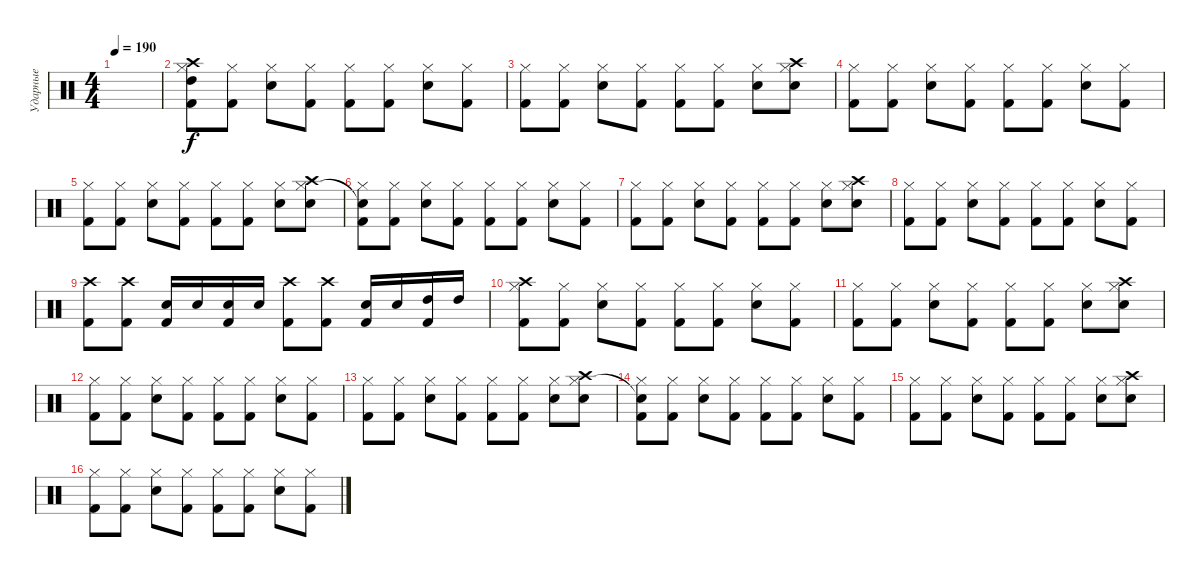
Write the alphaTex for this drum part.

\track ("Ударные" "Ударные") {instrument percussion}
\staff {score}
\articulation defaults
\ts (4 4)
\tempo 190
\clef neutral
\ks c
|
("High Tom (hit)" "Hi-Hat (closed)" "Crash high (hit)" "Kick (hit) 2").8 ("Hi-Hat (closed)" "Kick (hit) 2").8 ("Hi-Hat (closed)" "Electric Snare (hit)").8 ("Hi-Hat (closed)" "Kick (hit) 2").8 ("Hi-Hat (closed)" "Kick (hit) 2").8 ("Hi-Hat (closed)" "Kick (hit) 2").8 ("Hi-Hat (closed)" "Electric Snare (hit)").8 ("Hi-Hat (closed)" "Kick (hit) 2").8 |
("Hi-Hat (closed)" "Kick (hit) 2").8 ("Hi-Hat (closed)" "Kick (hit) 2").8 ("Hi-Hat (closed)" "Electric Snare (hit)").8 ("Hi-Hat (closed)" "Kick (hit) 2").8 ("Hi-Hat (closed)" "Kick (hit) 2").8 ("Hi-Hat (closed)" "Kick (hit) 2").8 ("Hi-Hat (closed)" "Electric Snare (hit)").8 ("Hi-Hat (closed)" "Crash high (hit)" "Electric Snare (hit)").8 |
("Hi-Hat (closed)" "Kick (hit) 2").8 ("Hi-Hat (closed)" "Kick (hit) 2").8 ("Hi-Hat (closed)" "Electric Snare (hit)").8 ("Hi-Hat (closed)" "Kick (hit) 2").8 ("Hi-Hat (closed)" "Kick (hit) 2").8 ("Hi-Hat (closed)" "Kick (hit) 2").8 ("Hi-Hat (closed)" "Electric Snare (hit)").8 ("Hi-Hat (closed)" "Kick (hit) 2").8 |
("Hi-Hat (closed)" "Kick (hit) 2").8 ("Hi-Hat (closed)" "Kick (hit) 2").8 ("Hi-Hat (closed)" "Electric Snare (hit)").8 ("Hi-Hat (closed)" "Kick (hit) 2").8 ("Hi-Hat (closed)" "Kick (hit) 2").8 ("Hi-Hat (closed)" "Kick (hit) 2").8 ("Hi-Hat (closed)" "Electric Snare (hit)").8 ("Hi-Hat (closed)" "Crash high (hit)" "Electric Snare (hit)").8 |
("Snare (hit)"{t} "Hi-Hat (closed)" "Kick (hit) 2").8 ("Hi-Hat (closed)" "Kick (hit) 2").8 ("Hi-Hat (closed)" "Electric Snare (hit)").8 ("Hi-Hat (closed)" "Kick (hit) 2").8 ("Hi-Hat (closed)" "Kick (hit) 2").8 ("Hi-Hat (closed)" "Kick (hit) 2").8 ("Hi-Hat (closed)" "Electric Snare (hit)").8 ("Hi-Hat (closed)" "Kick (hit) 2").8 |
("Hi-Hat (closed)" "Kick (hit) 2").8 ("Hi-Hat (closed)" "Kick (hit) 2").8 ("Hi-Hat (closed)" "Electric Snare (hit)").8 ("Hi-Hat (closed)" "Kick (hit) 2").8 ("Hi-Hat (closed)" "Kick (hit) 2").8 ("Hi-Hat (closed)" "Kick (hit) 2").8 ("Hi-Hat (closed)" "Electric Snare (hit)").8 ("Hi-Hat (closed)" "Crash high (hit)" "Electric Snare (hit)").8 |
("Hi-Hat (closed)" "Kick (hit) 2").8 ("Hi-Hat (closed)" "Kick (hit) 2").8 ("Hi-Hat (closed)" "Electric Snare (hit)").8 ("Hi-Hat (closed)" "Kick (hit) 2").8 ("Hi-Hat (closed)" "Kick (hit) 2").8 ("Hi-Hat (closed)" "Kick (hit) 2").8 ("Hi-Hat (closed)" "Electric Snare (hit)").8 ("Hi-Hat (closed)" "Kick (hit) 2").8 |
("Crash high (hit)" "Kick (hit) 2").8 ("Crash high (hit)" "Kick (hit) 2").8 ("Electric Snare (hit)" "Kick (hit) 2").16 "Electric Snare (hit)".16 ("Electric Snare (hit)" "Kick (hit) 2").16 "Electric Snare (hit)".16 ("Crash high (hit)" "Kick (hit) 2").8 ("Crash high (hit)" "Kick (hit) 2").8 ("Electric Snare (hit)" "Kick (hit) 2").16 "Electric Snare (hit)".16 ("High Tom (hit)" "Kick (hit) 2").16 "High Tom (hit)".16 |
("Hi-Hat (closed)" "Crash high (hit)" "Kick (hit) 2").8 ("Hi-Hat (closed)" "Kick (hit) 2").8 ("Hi-Hat (closed)" "Electric Snare (hit)").8 ("Hi-Hat (closed)" "Kick (hit) 2").8 ("Hi-Hat (closed)" "Kick (hit) 2").8 ("Hi-Hat (closed)" "Kick (hit) 2").8 ("Hi-Hat (closed)" "Electric Snare (hit)").8 ("Hi-Hat (closed)" "Kick (hit) 2").8 |
("Hi-Hat (closed)" "Kick (hit) 2").8 ("Hi-Hat (closed)" "Kick (hit) 2").8 ("Hi-Hat (closed)" "Electric Snare (hit)").8 ("Hi-Hat (closed)" "Kick (hit) 2").8 ("Hi-Hat (closed)" "Kick (hit) 2").8 ("Hi-Hat (closed)" "Kick (hit) 2").8 ("Hi-Hat (closed)" "Electric Snare (hit)").8 ("Hi-Hat (closed)" "Crash high (hit)" "Electric Snare (hit)").8 |
("Hi-Hat (closed)" "Kick (hit) 2").8 ("Hi-Hat (closed)" "Kick (hit) 2").8 ("Hi-Hat (closed)" "Electric Snare (hit)").8 ("Hi-Hat (closed)" "Kick (hit) 2").8 ("Hi-Hat (closed)" "Kick (hit) 2").8 ("Hi-Hat (closed)" "Kick (hit) 2").8 ("Hi-Hat (closed)" "Electric Snare (hit)").8 ("Hi-Hat (closed)" "Kick (hit) 2").8 |
("Hi-Hat (closed)" "Kick (hit) 2").8 ("Hi-Hat (closed)" "Kick (hit) 2").8 ("Hi-Hat (closed)" "Electric Snare (hit)").8 ("Hi-Hat (closed)" "Kick (hit) 2").8 ("Hi-Hat (closed)" "Kick (hit) 2").8 ("Hi-Hat (closed)" "Kick (hit) 2").8 ("Hi-Hat (closed)" "Electric Snare (hit)").8 ("Hi-Hat (closed)" "Crash high (hit)" "Electric Snare (hit)").8 |
("Snare (hit)"{t} "Hi-Hat (closed)" "Kick (hit) 2").8 ("Hi-Hat (closed)" "Kick (hit) 2").8 ("Hi-Hat (closed)" "Electric Snare (hit)").8 ("Hi-Hat (closed)" "Kick (hit) 2").8 ("Hi-Hat (closed)" "Kick (hit) 2").8 ("Hi-Hat (closed)" "Kick (hit) 2").8 ("Hi-Hat (closed)" "Electric Snare (hit)").8 ("Hi-Hat (closed)" "Kick (hit) 2").8 |
("Hi-Hat (closed)" "Kick (hit) 2").8 ("Hi-Hat (closed)" "Kick (hit) 2").8 ("Hi-Hat (closed)" "Electric Snare (hit)").8 ("Hi-Hat (closed)" "Kick (hit) 2").8 ("Hi-Hat (closed)" "Kick (hit) 2").8 ("Hi-Hat (closed)" "Kick (hit) 2").8 ("Hi-Hat (closed)" "Electric Snare (hit)").8 ("Hi-Hat (closed)" "Crash high (hit)" "Electric Snare (hit)").8 |
("Hi-Hat (closed)" "Kick (hit) 2").8 ("Hi-Hat (closed)" "Kick (hit) 2").8 ("Hi-Hat (closed)" "Electric Snare (hit)").8 ("Hi-Hat (closed)" "Kick (hit) 2").8 ("Hi-Hat (closed)" "Kick (hit) 2").8 ("Hi-Hat (closed)" "Kick (hit) 2").8 ("Hi-Hat (closed)" "Electric Snare (hit)").8 ("Hi-Hat (closed)" "Kick (hit) 2").8
